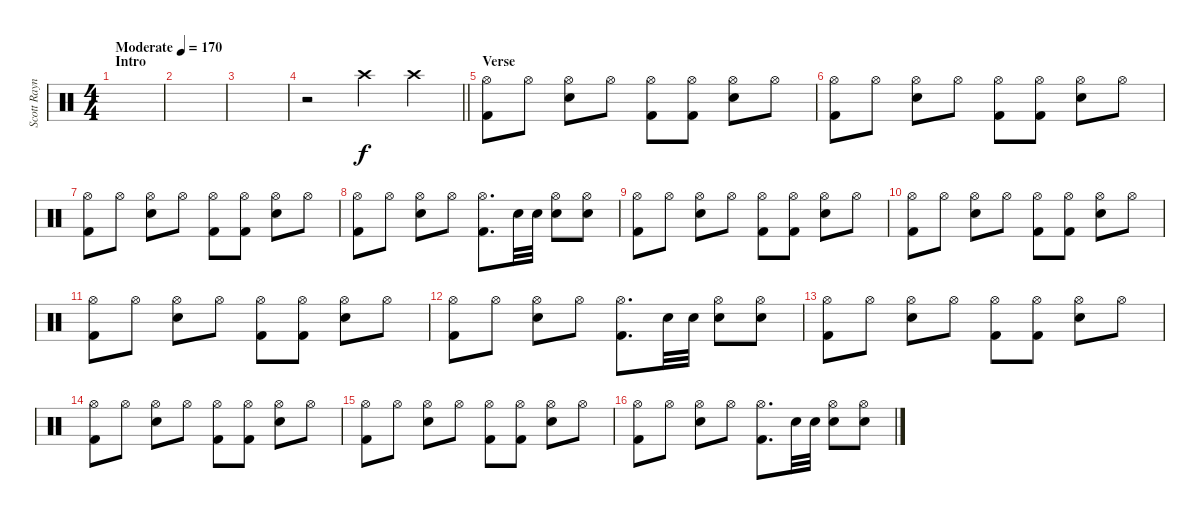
\track ("Scott Raynor" "Scott Rayn") {instrument percussion}
\staff {score}
\articulation defaults
\ts (4 4)
\section ("" "Intro")
\tempo (170 "Moderate")
\clef neutral
\ks c
|
|
|
\barLineRight lightlight
r.2 "Crash high (hit)".4 "Crash high (hit)".4 |
\section ("" "Verse")
("Hi-Hat (open)" "Kick (hit) 2").8 "Hi-Hat (open)".8 ("Hi-Hat (open)" "Snare (hit) 2").8 "Hi-Hat (open)".8 ("Hi-Hat (open)" "Kick (hit) 2").8 ("Hi-Hat (open)" "Kick (hit) 2").8 ("Hi-Hat (open)" "Snare (hit) 2").8 "Hi-Hat (open)".8 |
("Hi-Hat (open)" "Kick (hit) 2").8 "Hi-Hat (open)".8 ("Hi-Hat (open)" "Snare (hit) 2").8 "Hi-Hat (open)".8 ("Hi-Hat (open)" "Kick (hit) 2").8 ("Hi-Hat (open)" "Kick (hit) 2").8 ("Hi-Hat (open)" "Snare (hit) 2").8 "Hi-Hat (open)".8 |
("Hi-Hat (open)" "Kick (hit) 2").8 "Hi-Hat (open)".8 ("Hi-Hat (open)" "Snare (hit) 2").8 "Hi-Hat (open)".8 ("Hi-Hat (open)" "Kick (hit) 2").8 ("Hi-Hat (open)" "Kick (hit) 2").8 ("Hi-Hat (open)" "Snare (hit) 2").8 "Hi-Hat (open)".8 |
("Hi-Hat (open)" "Kick (hit) 2").8 "Hi-Hat (open)".8 ("Hi-Hat (open)" "Snare (hit) 2").8 "Hi-Hat (open)".8 ("Hi-Hat (open)" "Kick (hit) 2").8{d} "Snare (hit) 2".32 "Snare (hit) 2".32 ("Hi-Hat (open)" "Snare (hit) 2").8 ("Hi-Hat (open)" "Snare (hit) 2").8 |
("Hi-Hat (open)" "Kick (hit) 2").8 "Hi-Hat (open)".8 ("Hi-Hat (open)" "Snare (hit) 2").8 "Hi-Hat (open)".8 ("Hi-Hat (open)" "Kick (hit) 2").8 ("Hi-Hat (open)" "Kick (hit) 2").8 ("Hi-Hat (open)" "Snare (hit) 2").8 "Hi-Hat (open)".8 |
("Hi-Hat (open)" "Kick (hit) 2").8 "Hi-Hat (open)".8 ("Hi-Hat (open)" "Snare (hit) 2").8 "Hi-Hat (open)".8 ("Hi-Hat (open)" "Kick (hit) 2").8 ("Hi-Hat (open)" "Kick (hit) 2").8 ("Hi-Hat (open)" "Snare (hit) 2").8 "Hi-Hat (open)".8 |
("Hi-Hat (open)" "Kick (hit) 2").8 "Hi-Hat (open)".8 ("Hi-Hat (open)" "Snare (hit) 2").8 "Hi-Hat (open)".8 ("Hi-Hat (open)" "Kick (hit) 2").8 ("Hi-Hat (open)" "Kick (hit) 2").8 ("Hi-Hat (open)" "Snare (hit) 2").8 "Hi-Hat (open)".8 |
("Hi-Hat (open)" "Kick (hit) 2").8 "Hi-Hat (open)".8 ("Hi-Hat (open)" "Snare (hit) 2").8 "Hi-Hat (open)".8 ("Hi-Hat (open)" "Kick (hit) 2").8{d} "Snare (hit) 2".32 "Snare (hit) 2".32 ("Hi-Hat (open)" "Snare (hit) 2").8 ("Hi-Hat (open)" "Snare (hit) 2").8 |
("Hi-Hat (open)" "Kick (hit) 2").8 "Hi-Hat (open)".8 ("Hi-Hat (open)" "Snare (hit) 2").8 "Hi-Hat (open)".8 ("Hi-Hat (open)" "Kick (hit) 2").8 ("Hi-Hat (open)" "Kick (hit) 2").8 ("Hi-Hat (open)" "Snare (hit) 2").8 "Hi-Hat (open)".8 |
("Hi-Hat (open)" "Kick (hit) 2").8 "Hi-Hat (open)".8 ("Hi-Hat (open)" "Snare (hit) 2").8 "Hi-Hat (open)".8 ("Hi-Hat (open)" "Kick (hit) 2").8 ("Hi-Hat (open)" "Kick (hit) 2").8 ("Hi-Hat (open)" "Snare (hit) 2").8 "Hi-Hat (open)".8 |
("Hi-Hat (open)" "Kick (hit) 2").8 "Hi-Hat (open)".8 ("Hi-Hat (open)" "Snare (hit) 2").8 "Hi-Hat (open)".8 ("Hi-Hat (open)" "Kick (hit) 2").8 ("Hi-Hat (open)" "Kick (hit) 2").8 ("Hi-Hat (open)" "Snare (hit) 2").8 "Hi-Hat (open)".8 |
("Hi-Hat (open)" "Kick (hit) 2").8 "Hi-Hat (open)".8 ("Hi-Hat (open)" "Snare (hit) 2").8 "Hi-Hat (open)".8 ("Hi-Hat (open)" "Kick (hit) 2").8{d} "Snare (hit) 2".32 "Snare (hit) 2".32 ("Hi-Hat (open)" "Snare (hit) 2").8 ("Hi-Hat (open)" "Snare (hit) 2").8
